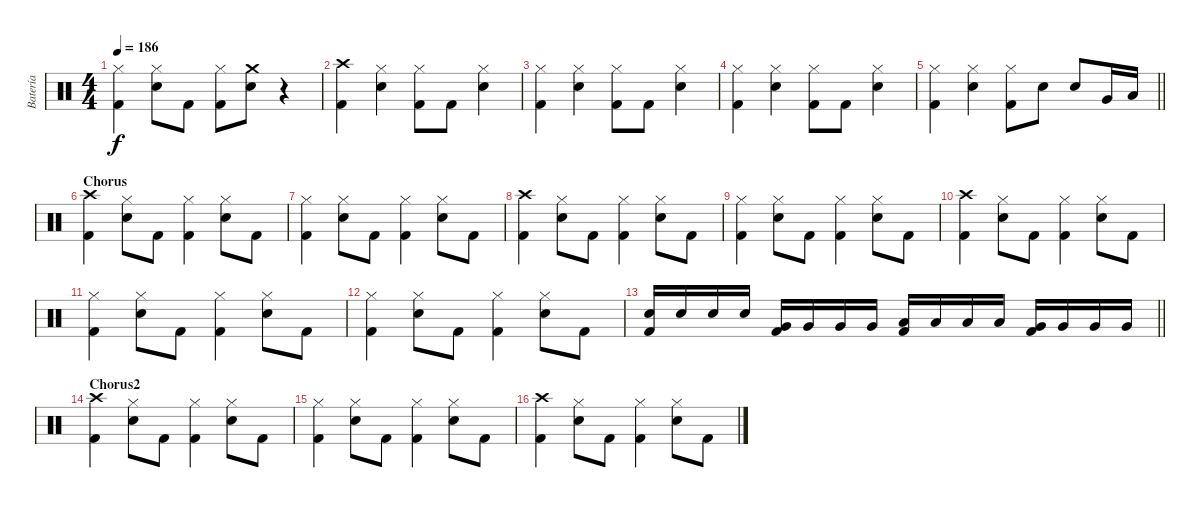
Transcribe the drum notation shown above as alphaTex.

\track ("Batería" "Batería") {instrument percussion}
\staff {score}
\articulation defaults
\ts (4 4)
\tempo 186
\clef neutral
\ks c
("Hi-Hat (closed)" "Kick (hit) 2").4{dy f} ("Hi-Hat (closed)" "Snare (hit) 2").8 "Kick (hit) 2".8 ("Hi-Hat (closed)" "Kick (hit) 2").8 ("Crash medium (hit)" "Snare (hit) 2").8 r.4 |
("Crash high (hit)" "Kick (hit) 2").4 ("Hi-Hat (closed)" "Snare (hit) 2").4 ("Hi-Hat (closed)" "Kick (hit) 2").8 "Kick (hit) 2".8 ("Hi-Hat (closed)" "Snare (hit) 2").4 |
("Hi-Hat (closed)" "Kick (hit) 2").4 ("Hi-Hat (closed)" "Snare (hit) 2").4 ("Hi-Hat (closed)" "Kick (hit) 2").8 "Kick (hit) 2".8 ("Hi-Hat (closed)" "Snare (hit) 2").4 |
("Hi-Hat (closed)" "Kick (hit) 2").4 ("Hi-Hat (closed)" "Snare (hit) 2").4 ("Hi-Hat (closed)" "Kick (hit) 2").8 "Kick (hit) 2".8 ("Hi-Hat (closed)" "Snare (hit) 2").4 |
\barLineRight lightlight
("Hi-Hat (closed)" "Kick (hit) 2").4 ("Hi-Hat (closed)" "Snare (hit) 2").4 ("Hi-Hat (closed)" "Kick (hit) 2").8 "Snare (hit) 2".8 "Snare (hit) 2".8 "Very Low Tom (hit)".16 "Low Floor Tom (hit)".16 |
\section ("" "Chorus")
("Crash high (hit)" "Kick (hit) 2").4 ("Hi-Hat (closed)" "Snare (hit) 2").8 "Kick (hit) 2".8 ("Hi-Hat (closed)" "Kick (hit) 2").4 ("Hi-Hat (closed)" "Snare (hit) 2").8 "Kick (hit) 2".8 |
("Hi-Hat (closed)" "Kick (hit) 2").4 ("Hi-Hat (closed)" "Snare (hit) 2").8 "Kick (hit) 2".8 ("Hi-Hat (closed)" "Kick (hit) 2").4 ("Hi-Hat (closed)" "Snare (hit) 2").8 "Kick (hit) 2".8 |
("Crash high (hit)" "Kick (hit) 2").4 ("Hi-Hat (closed)" "Snare (hit) 2").8 "Kick (hit) 2".8 ("Hi-Hat (closed)" "Kick (hit) 2").4 ("Hi-Hat (closed)" "Snare (hit) 2").8 "Kick (hit) 2".8 |
("Hi-Hat (closed)" "Kick (hit) 2").4 ("Hi-Hat (closed)" "Snare (hit) 2").8 "Kick (hit) 2".8 ("Hi-Hat (closed)" "Kick (hit) 2").4 ("Hi-Hat (closed)" "Snare (hit) 2").8 "Kick (hit) 2".8 |
("Crash high (hit)" "Kick (hit) 2").4 ("Hi-Hat (closed)" "Snare (hit) 2").8 "Kick (hit) 2".8 ("Hi-Hat (closed)" "Kick (hit) 2").4 ("Hi-Hat (closed)" "Snare (hit) 2").8 "Kick (hit) 2".8 |
("Hi-Hat (closed)" "Kick (hit) 2").4 ("Hi-Hat (closed)" "Snare (hit) 2").8 "Kick (hit) 2".8 ("Hi-Hat (closed)" "Kick (hit) 2").4 ("Hi-Hat (closed)" "Snare (hit) 2").8 "Kick (hit) 2".8 |
("Hi-Hat (closed)" "Kick (hit) 2").4 ("Hi-Hat (closed)" "Snare (hit) 2").8 "Kick (hit) 2".8 ("Hi-Hat (closed)" "Kick (hit) 2").4 ("Hi-Hat (closed)" "Snare (hit) 2").8 "Kick (hit) 2".8 |
\barLineRight lightlight
("Snare (hit) 2" "Kick (hit) 2").16 "Snare (hit) 2".16 "Snare (hit) 2".16 "Snare (hit) 2".16 ("Very Low Tom (hit)" "Kick (hit) 2").16 "Very Low Tom (hit)".16 "Very Low Tom (hit)".16 "Very Low Tom (hit)".16 ("Low Floor Tom (hit)" "Kick (hit) 2").16 "Low Floor Tom (hit)".16 "Low Floor Tom (hit)".16 "Low Floor Tom (hit)".16 ("Very Low Tom (hit)" "Kick (hit) 2").16 "Very Low Tom (hit)".16 "Very Low Tom (hit)".16 "Very Low Tom (hit)".16 |
\section ("" "Chorus2")
("Crash high (hit)" "Kick (hit) 2").4 ("Hi-Hat (closed)" "Snare (hit) 2").8 "Kick (hit) 2".8 ("Hi-Hat (closed)" "Kick (hit) 2").4 ("Hi-Hat (closed)" "Snare (hit) 2").8 "Kick (hit) 2".8 |
("Hi-Hat (closed)" "Kick (hit) 2").4 ("Hi-Hat (closed)" "Snare (hit) 2").8 "Kick (hit) 2".8 ("Hi-Hat (closed)" "Kick (hit) 2").4 ("Hi-Hat (closed)" "Snare (hit) 2").8 "Kick (hit) 2".8 |
("Crash high (hit)" "Kick (hit) 2").4 ("Hi-Hat (closed)" "Snare (hit) 2").8 "Kick (hit) 2".8 ("Hi-Hat (closed)" "Kick (hit) 2").4 ("Hi-Hat (closed)" "Snare (hit) 2").8 "Kick (hit) 2".8
